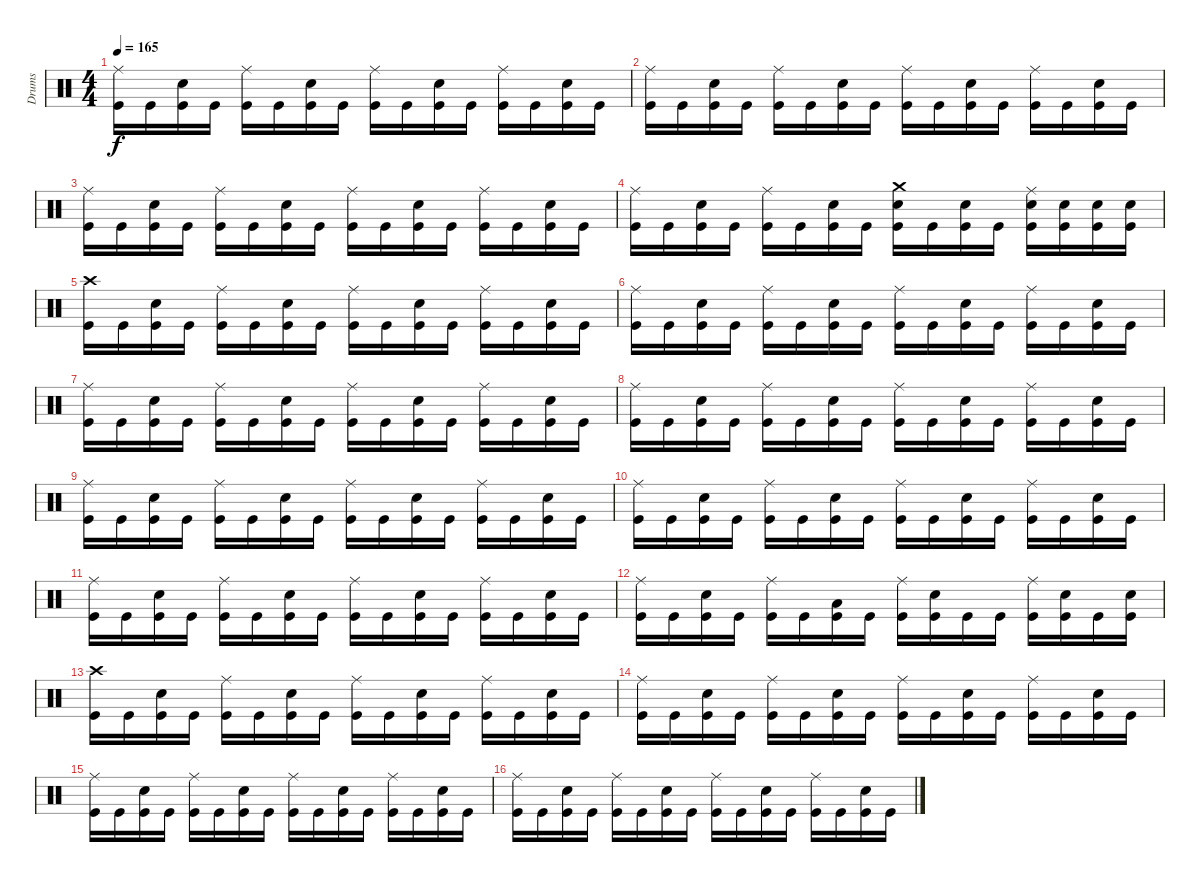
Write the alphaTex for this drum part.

\track ("Drums" "Drums") {instrument percussion}
\staff {score}
\articulation defaults
\ts (4 4)
\tempo 165
\clef neutral
\ks c
("Ride (middle)" "Kick (hit)").16{dy f} "Kick (hit)".16 ("Electric Snare (hit)" "Kick (hit)").16 "Kick (hit)".16 ("Ride (middle)" "Kick (hit)").16 "Kick (hit)".16 ("Electric Snare (hit)" "Kick (hit)").16 "Kick (hit)".16 ("Ride (middle)" "Kick (hit)").16 "Kick (hit)".16 ("Electric Snare (hit)" "Kick (hit)").16 "Kick (hit)".16 ("Ride (middle)" "Kick (hit)").16 "Kick (hit)".16 ("Electric Snare (hit)" "Kick (hit)").16 "Kick (hit)".16 |
("Ride (middle)" "Kick (hit)").16 "Kick (hit)".16 ("Electric Snare (hit)" "Kick (hit)").16 "Kick (hit)".16 ("Ride (middle)" "Kick (hit)").16 "Kick (hit)".16 ("Electric Snare (hit)" "Kick (hit)").16 "Kick (hit)".16 ("Ride (middle)" "Kick (hit)").16 "Kick (hit)".16 ("Electric Snare (hit)" "Kick (hit)").16 "Kick (hit)".16 ("Ride (middle)" "Kick (hit)").16 "Kick (hit)".16 ("Electric Snare (hit)" "Kick (hit)").16 "Kick (hit)".16 |
("Ride (middle)" "Kick (hit)").16 "Kick (hit)".16 ("Electric Snare (hit)" "Kick (hit)").16 "Kick (hit)".16 ("Ride (middle)" "Kick (hit)").16 "Kick (hit)".16 ("Electric Snare (hit)" "Kick (hit)").16 "Kick (hit)".16 ("Ride (middle)" "Kick (hit)").16 "Kick (hit)".16 ("Electric Snare (hit)" "Kick (hit)").16 "Kick (hit)".16 ("Ride (middle)" "Kick (hit)").16 "Kick (hit)".16 ("Electric Snare (hit)" "Kick (hit)").16 "Kick (hit)".16 |
("Ride (middle)" "Kick (hit)").16 "Kick (hit)".16 ("Electric Snare (hit)" "Kick (hit)").16 "Kick (hit)".16 ("Ride (middle)" "Kick (hit)").16 "Kick (hit)".16 ("Electric Snare (hit)" "Kick (hit)").16 "Kick (hit)".16 ("Electric Snare (hit)" "Crash medium (hit)" "Kick (hit)").16 "Kick (hit)".16 ("Electric Snare (hit)" "Kick (hit)").16 "Kick (hit)".16 ("Electric Snare (hit)" "Ride (middle)" "Kick (hit)").16 ("Electric Snare (hit)" "Kick (hit)").16 ("Electric Snare (hit)" "Kick (hit)").16 ("Electric Snare (hit)" "Kick (hit)").16 |
("Kick (hit)" "Crash high (hit)").16{volume 14 balance 8} "Kick (hit)".16 ("Electric Snare (hit)" "Kick (hit)").16 "Kick (hit)".16 ("Ride (middle)" "Kick (hit)").16 "Kick (hit)".16 ("Electric Snare (hit)" "Kick (hit)").16 "Kick (hit)".16 ("Ride (middle)" "Kick (hit)").16 "Kick (hit)".16 ("Electric Snare (hit)" "Kick (hit)").16 "Kick (hit)".16 ("Ride (middle)" "Kick (hit)").16 "Kick (hit)".16 ("Electric Snare (hit)" "Kick (hit)").16 "Kick (hit)".16 |
("Ride (middle)" "Kick (hit)").16 "Kick (hit)".16 ("Electric Snare (hit)" "Kick (hit)").16 "Kick (hit)".16 ("Ride (middle)" "Kick (hit)").16 "Kick (hit)".16 ("Electric Snare (hit)" "Kick (hit)").16 "Kick (hit)".16 ("Ride (middle)" "Kick (hit)").16 "Kick (hit)".16 ("Electric Snare (hit)" "Kick (hit)").16 "Kick (hit)".16 ("Ride (middle)" "Kick (hit)").16 "Kick (hit)".16 ("Electric Snare (hit)" "Kick (hit)").16 "Kick (hit)".16 |
("Ride (middle)" "Kick (hit)").16 "Kick (hit)".16 ("Electric Snare (hit)" "Kick (hit)").16 "Kick (hit)".16 ("Ride (middle)" "Kick (hit)").16 "Kick (hit)".16 ("Electric Snare (hit)" "Kick (hit)").16 "Kick (hit)".16 ("Ride (middle)" "Kick (hit)").16 "Kick (hit)".16 ("Electric Snare (hit)" "Kick (hit)").16 "Kick (hit)".16 ("Ride (middle)" "Kick (hit)").16 "Kick (hit)".16 ("Electric Snare (hit)" "Kick (hit)").16 "Kick (hit)".16 |
("Ride (middle)" "Kick (hit)").16 "Kick (hit)".16 ("Electric Snare (hit)" "Kick (hit)").16 "Kick (hit)".16 ("Ride (middle)" "Kick (hit)").16 "Kick (hit)".16 ("Electric Snare (hit)" "Kick (hit)").16 "Kick (hit)".16 ("Ride (middle)" "Kick (hit)").16 "Kick (hit)".16 ("Electric Snare (hit)" "Kick (hit)").16 "Kick (hit)".16 ("Ride (middle)" "Kick (hit)").16 "Kick (hit)".16 ("Electric Snare (hit)" "Kick (hit)").16 "Kick (hit)".16 |
("Ride (middle)" "Kick (hit)").16 "Kick (hit)".16 ("Electric Snare (hit)" "Kick (hit)").16 "Kick (hit)".16 ("Ride (middle)" "Kick (hit)").16 "Kick (hit)".16 ("Electric Snare (hit)" "Kick (hit)").16 "Kick (hit)".16 ("Ride (middle)" "Kick (hit)").16 "Kick (hit)".16 ("Electric Snare (hit)" "Kick (hit)").16 "Kick (hit)".16 ("Ride (middle)" "Kick (hit)").16 "Kick (hit)".16 ("Electric Snare (hit)" "Kick (hit)").16 "Kick (hit)".16 |
("Ride (middle)" "Kick (hit)").16 "Kick (hit)".16 ("Electric Snare (hit)" "Kick (hit)").16 "Kick (hit)".16 ("Ride (middle)" "Kick (hit)").16 "Kick (hit)".16 ("Electric Snare (hit)" "Kick (hit)").16 "Kick (hit)".16 ("Ride (middle)" "Kick (hit)").16 "Kick (hit)".16 ("Electric Snare (hit)" "Kick (hit)").16 "Kick (hit)".16 ("Ride (middle)" "Kick (hit)").16 "Kick (hit)".16 ("Electric Snare (hit)" "Kick (hit)").16 "Kick (hit)".16 |
("Ride (middle)" "Kick (hit)").16 "Kick (hit)".16 ("Electric Snare (hit)" "Kick (hit)").16 "Kick (hit)".16 ("Ride (middle)" "Kick (hit)").16 "Kick (hit)".16 ("Electric Snare (hit)" "Kick (hit)").16 "Kick (hit)".16 ("Ride (middle)" "Kick (hit)").16 "Kick (hit)".16 ("Electric Snare (hit)" "Kick (hit)").16 "Kick (hit)".16 ("Ride (middle)" "Kick (hit)").16 "Kick (hit)".16 ("Electric Snare (hit)" "Kick (hit)").16 "Kick (hit)".16 |
("Ride (middle)" "Kick (hit)").16 "Kick (hit)".16 ("Electric Snare (hit)" "Kick (hit)").16 "Kick (hit)".16 ("Ride (middle)" "Kick (hit)").16 "Kick (hit)".16 ("Low Tom (hit)" "Kick (hit)").16 "Kick (hit)".16 ("Ride (middle)" "Kick (hit)").16 ("Electric Snare (hit)" "Kick (hit)").16 "Kick (hit)".16 "Kick (hit)".16 ("Ride (middle)" "Kick (hit)").16 ("Electric Snare (hit)" "Kick (hit)").16 "Kick (hit)".16 ("Electric Snare (hit)" "Kick (hit)").16 |
("Kick (hit)" "Crash high (hit)").16 "Kick (hit)".16 ("Electric Snare (hit)" "Kick (hit)").16 "Kick (hit)".16 ("Ride (middle)" "Kick (hit)").16 "Kick (hit)".16 ("Electric Snare (hit)" "Kick (hit)").16 "Kick (hit)".16 ("Ride (middle)" "Kick (hit)").16 "Kick (hit)".16 ("Electric Snare (hit)" "Kick (hit)").16 "Kick (hit)".16 ("Ride (middle)" "Kick (hit)").16 "Kick (hit)".16 ("Electric Snare (hit)" "Kick (hit)").16 "Kick (hit)".16 |
("Ride (middle)" "Kick (hit)").16 "Kick (hit)".16 ("Electric Snare (hit)" "Kick (hit)").16 "Kick (hit)".16 ("Ride (middle)" "Kick (hit)").16 "Kick (hit)".16 ("Electric Snare (hit)" "Kick (hit)").16 "Kick (hit)".16 ("Ride (middle)" "Kick (hit)").16 "Kick (hit)".16 ("Electric Snare (hit)" "Kick (hit)").16 "Kick (hit)".16 ("Ride (middle)" "Kick (hit)").16 "Kick (hit)".16 ("Electric Snare (hit)" "Kick (hit)").16 "Kick (hit)".16 |
("Ride (middle)" "Kick (hit)").16 "Kick (hit)".16 ("Electric Snare (hit)" "Kick (hit)").16 "Kick (hit)".16 ("Ride (middle)" "Kick (hit)").16 "Kick (hit)".16 ("Electric Snare (hit)" "Kick (hit)").16 "Kick (hit)".16 ("Ride (middle)" "Kick (hit)").16 "Kick (hit)".16 ("Electric Snare (hit)" "Kick (hit)").16 "Kick (hit)".16 ("Ride (middle)" "Kick (hit)").16 "Kick (hit)".16 ("Electric Snare (hit)" "Kick (hit)").16 "Kick (hit)".16 |
("Ride (middle)" "Kick (hit)").16 "Kick (hit)".16 ("Electric Snare (hit)" "Kick (hit)").16 "Kick (hit)".16 ("Ride (middle)" "Kick (hit)").16 "Kick (hit)".16 ("Electric Snare (hit)" "Kick (hit)").16 "Kick (hit)".16 ("Ride (middle)" "Kick (hit)").16 "Kick (hit)".16 ("Electric Snare (hit)" "Kick (hit)").16 "Kick (hit)".16 ("Ride (middle)" "Kick (hit)").16 "Kick (hit)".16 ("Electric Snare (hit)" "Kick (hit)").16 "Kick (hit)".16
